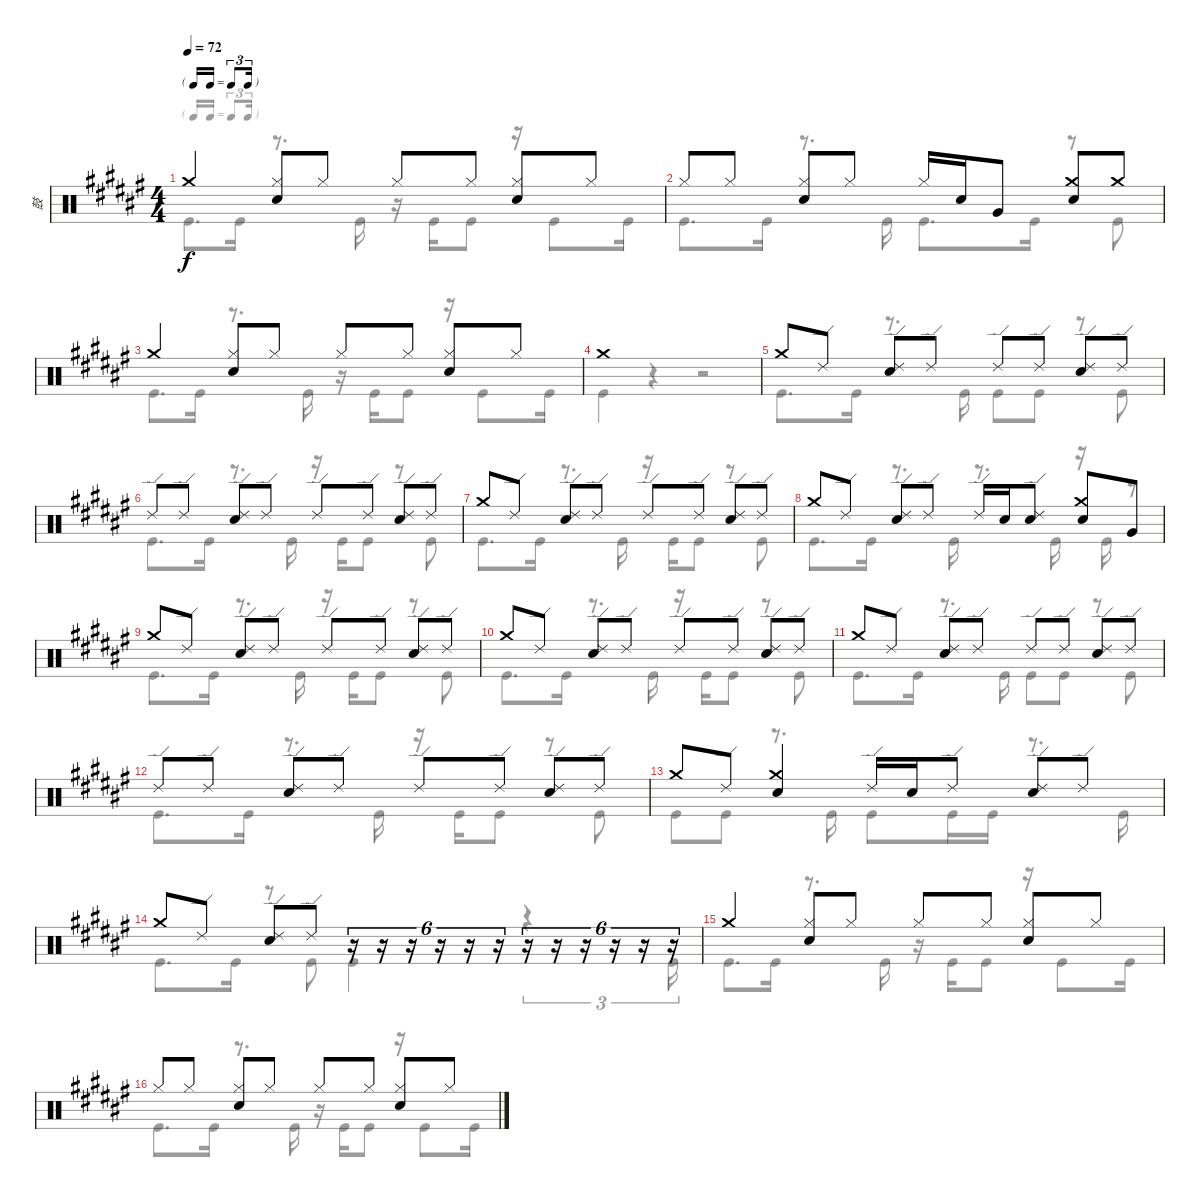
\track ("鼓" "鼓") {instrument percussion}
\staff {score}
\articulation defaults
\voice
\ts (4 4)
\tf triplet16th
\tempo 72
\clef neutral
\ks f# "Crash medium (hit)".4{dy f}
("Hi-Hat (closed)" "Snare (hit) 2").8 "Hi-Hat (closed)".8 "Hi-Hat (closed)".8 "Hi-Hat (closed)".8 ("Hi-Hat (closed)" "Snare (hit) 2").8 "Hi-Hat (closed)".8 |
"Hi-Hat (closed)".8 "Hi-Hat (closed)".8 ("Hi-Hat (closed)" "Snare (hit) 2").8 "Hi-Hat (closed)".8 "Hi-Hat (closed)".16 "Snare (hit) 2".16 "Very Low Tom (hit)".8 ("Crash medium (hit)" "Snare (hit) 2").8 "Crash medium (hit)".8 |
"Crash medium (hit)".4 ("Hi-Hat (closed)" "Snare (hit) 2").8 "Hi-Hat (closed)".8 "Hi-Hat (closed)".8 "Hi-Hat (closed)".8 ("Hi-Hat (closed)" "Snare (hit) 2").8 "Hi-Hat (closed)".8 |
"Crash medium (hit)".1 |
"Crash medium (hit)".8 "Ride (edge) 2".8 ("Ride (edge) 2" "Snare (hit) 2").8 "Ride (edge) 2".8 "Ride (edge) 2".8 "Ride (edge) 2".8 ("Ride (edge) 2" "Snare (hit) 2").8 "Ride (edge) 2".8 |
"Ride (edge) 2".8 "Ride (edge) 2".8 ("Ride (edge) 2" "Snare (hit) 2").8 "Ride (edge) 2".8 "Ride (edge) 2".8 "Ride (edge) 2".8 ("Ride (edge) 2" "Snare (hit) 2").8 "Ride (edge) 2".8 |
"Crash medium (hit)".8 "Ride (edge) 2".8 ("Ride (edge) 2" "Snare (hit) 2").8 "Ride (edge) 2".8 "Ride (edge) 2".8 "Ride (edge) 2".8 ("Ride (edge) 2" "Snare (hit) 2").8 "Ride (edge) 2".8 |
"Crash medium (hit)".8 "Ride (edge) 2".8 ("Ride (edge) 2" "Snare (hit) 2").8 "Ride (edge) 2".8 "Ride (edge) 2".16 "Snare (hit) 2".16 ("Ride (edge) 2" "Snare (hit) 2").8 ("Crash medium (hit)" "Snare (hit) 2").8 "Very Low Tom (hit)".8 |
"Crash medium (hit)".8 "Ride (edge) 2".8 ("Ride (edge) 2" "Snare (hit) 2").8 "Ride (edge) 2".8 "Ride (edge) 2".8 "Ride (edge) 2".8 ("Ride (edge) 2" "Snare (hit) 2").8 "Ride (edge) 2".8 |
"Crash medium (hit)".8 "Ride (edge) 2".8 ("Ride (edge) 2" "Snare (hit) 2").8 "Ride (edge) 2".8 "Ride (edge) 2".8 "Ride (edge) 2".8 ("Ride (edge) 2" "Snare (hit) 2").8 "Ride (edge) 2".8 |
"Crash medium (hit)".8 "Ride (edge) 2".8 ("Ride (edge) 2" "Snare (hit) 2").8 "Ride (edge) 2".8 "Ride (edge) 2".8 "Ride (edge) 2".8 ("Ride (edge) 2" "Snare (hit) 2").8 "Ride (edge) 2".8 |
"Ride (edge) 2".8 "Ride (edge) 2".8 ("Ride (edge) 2" "Snare (hit) 2").8 "Ride (edge) 2".8 "Ride (edge) 2".8 "Ride (edge) 2".8 ("Ride (edge) 2" "Snare (hit) 2").8 "Ride (edge) 2".8 |
"Crash medium (hit)".8 "Ride (edge) 2".8 ("Crash medium (hit)" "Snare (hit) 2").4 "Ride (edge) 2".16 "Snare (hit) 2".16 "Ride (edge) 2".8 ("Ride (edge) 2" "Snare (hit) 2").8 "Ride (edge) 2".8 |
"Crash medium (hit)".8 "Ride (edge) 2".8 ("Ride (edge) 2" "Snare (hit) 2").8 "Ride (edge) 2".8 r.16{tu (6 4)} r.16{tu (6 4)} r.16{tu (6 4)} r.16{tu (6 4)} r.16{tu (6 4)} r.16{tu (6 4)} r.16{tu (6 4)} r.16{tu (6 4)} r.16{tu (6 4)} r.16{tu (6 4)} r.16{tu (6 4)} r.16{tu (6 4)} |
"Crash medium (hit)".4 ("Hi-Hat (closed)" "Snare (hit) 2").8 "Hi-Hat (closed)".8 "Hi-Hat (closed)".8 "Hi-Hat (closed)".8 ("Hi-Hat (closed)" "Snare (hit) 2").8 "Hi-Hat (closed)".8 |
"Hi-Hat (closed)".8 "Hi-Hat (closed)".8 ("Hi-Hat (closed)" "Snare (hit) 2").8 "Hi-Hat (closed)".8 "Hi-Hat (closed)".8 "Hi-Hat (closed)".8 ("Hi-Hat (closed)" "Snare (hit) 2").8 "Hi-Hat (closed)".8
\voice
\clef neutral
\ottava regular
\simile none
\ks f# "Kick (hit)".8{d dy f} "Kick (hit)".16
r.8{d} "Kick (hit)".16 r.16 "Kick (hit)".16 "Kick (hit)".8 r.16 "Kick (hit)".8 "Kick (hit)".16 |
"Kick (hit)".8{d} "Kick (hit)".16 r.8{d} "Kick (hit)".16 "Kick (hit)".8{d} "Kick (hit)".16 r.8 "Kick (hit)".8 |
"Kick (hit)".8{d} "Kick (hit)".16 r.8{d} "Kick (hit)".16 r.16 "Kick (hit)".16 "Kick (hit)".8 r.16 "Kick (hit)".8 "Kick (hit)".16 |
"Kick (hit)".4 r.4 r.2 |
"Kick (hit)".8{d} "Kick (hit)".16 r.8{d} "Kick (hit)".16 "Kick (hit)".8 "Kick (hit)".8 r.8 "Kick (hit)".8 |
"Kick (hit)".8{d} "Kick (hit)".16 r.8{d} "Kick (hit)".16 r.16 "Kick (hit)".16 "Kick (hit)".8 r.8 "Kick (hit)".8 |
"Kick (hit)".8{d} "Kick (hit)".16 r.8{d} "Kick (hit)".16 r.16 "Kick (hit)".16 "Kick (hit)".8 r.8 "Kick (hit)".8 |
"Kick (hit)".8{d} "Kick (hit)".16 r.8{d} "Kick (hit)".16 r.8{d} "Kick (hit)".16 r.16 "Kick (hit)".16 r.8 |
"Kick (hit)".8{d} "Kick (hit)".16 r.8{d} "Kick (hit)".16 r.16 "Kick (hit)".16 "Kick (hit)".8 r.8 "Kick (hit)".8 |
"Kick (hit)".8{d} "Kick (hit)".16 r.8{d} "Kick (hit)".16 r.16 "Kick (hit)".16 "Kick (hit)".8 r.8 "Kick (hit)".8 |
"Kick (hit)".8{d} "Kick (hit)".16 r.8{d} "Kick (hit)".16 "Kick (hit)".8 "Kick (hit)".8 r.8 "Kick (hit)".8 |
"Kick (hit)".8{d} "Kick (hit)".16 r.8{d} "Kick (hit)".16 r.16 "Kick (hit)".16 "Kick (hit)".8 r.8 "Kick (hit)".8 |
"Kick (hit)".8 "Kick (hit)".8 r.8{d} "Kick (hit)".16 "Kick (hit)".8 "Kick (hit)".16 "Kick (hit)".16 r.8{d} "Kick (hit)".16 |
"Kick (hit)".8{d} "Kick (hit)".16 r.8 "Kick (hit)".8 "Kick (hit)".4 r.4{tu (3 2)} r.16{tu (3 2)} "Kick (hit)".16{tu (3 2)} |
"Kick (hit)".8{d} "Kick (hit)".16 r.8{d} "Kick (hit)".16 r.16 "Kick (hit)".16 "Kick (hit)".8 r.16 "Kick (hit)".8 "Kick (hit)".16 |
"Kick (hit)".8{d} "Kick (hit)".16 r.8{d} "Kick (hit)".16 r.16 "Kick (hit)".16 "Kick (hit)".8 r.16 "Kick (hit)".8 "Kick (hit)".16
